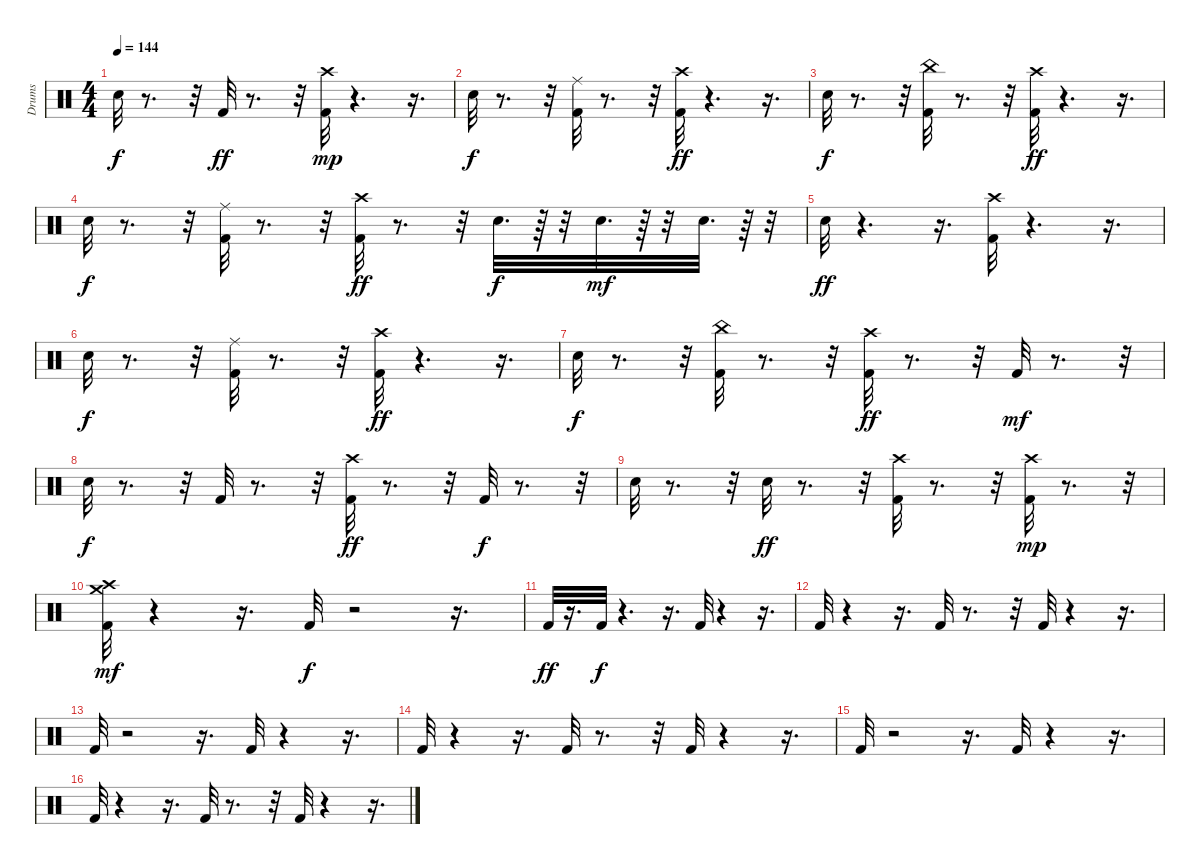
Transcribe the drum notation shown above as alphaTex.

\track ("Drums" "Drums") {instrument percussion}
\staff {score}
\articulation defaults
\ts (4 4)
\tempo 144
\clef neutral
\ks c "Snare (hit) 2".32{dy f}
r.8{d} r.32 "Kick (hit) 2".32{dy ff} r.8{d} r.32 ("Crash high (hit)" "Kick (hit) 2").32{dy mp} r.4{d} r.16{d} |
"Snare (hit) 2".32{dy f} r.8{d} r.32 ("Ride (middle)" "Kick (hit) 2").32 r.8{d} r.32 ("Crash high (hit)" "Kick (hit) 2").32{dy ff} r.4{d} r.16{d} |
"Snare (hit) 2".32{dy f} r.8{d} r.32 ("China (hit)" "Kick (hit) 2").32 r.8{d} r.32 ("Crash high (hit)" "Kick (hit) 2").32{dy ff} r.4{d} r.16{d} |
"Snare (hit) 2".32{dy f} r.8{d} r.32 ("Ride (middle)" "Kick (hit) 2").32 r.8{d} r.32 ("Crash high (hit)" "Kick (hit) 2").32{dy ff} r.8{d} r.32 "Snare (hit) 2".32{d dy f} r.64 r.32 "Snare (hit) 2".32{d dy mf} r.64 r.32 "Snare (hit) 2".32{d} r.64 r.32 |
"Snare (hit) 2".32{dy ff} r.4{d} r.16{d} ("Crash high (hit)" "Kick (hit) 2").32 r.4{d} r.16{d} |
"Snare (hit) 2".32{dy f} r.8{d} r.32 ("Ride (middle)" "Kick (hit) 2").32 r.8{d} r.32 ("Crash high (hit)" "Kick (hit) 2").32{dy ff} r.4{d} r.16{d} |
"Snare (hit) 2".32{dy f} r.8{d} r.32 ("China (hit)" "Kick (hit) 2").32 r.8{d} r.32 ("Crash high (hit)" "Kick (hit) 2").32{dy ff} r.8{d} r.32 "Kick (hit) 2".32{dy mf} r.8{d} r.32 |
"Snare (hit) 2".32{dy f} r.8{d} r.32 "Kick (hit) 2".32 r.8{d} r.32 ("Crash high (hit)" "Kick (hit) 2").32{dy ff} r.8{d} r.32 "Kick (hit) 2".32{dy f} r.8{d} r.32 |
"Snare (hit) 2".32 r.8{d} r.32 "Snare (hit) 2".32{dy ff} r.8{d} r.32 ("Crash high (hit)" "Kick (hit) 2").32 r.8{d} r.32 ("Crash high (hit)" "Kick (hit) 2").32{dy mp} r.8{d} r.32 |
("Crash medium (hit)" "Kick (hit) 2" "Crash high (hit)").32{dy mf} r.4 r.16{d} "Kick (hit) 2".32{dy f} r.2 r.16{d} |
"Kick (hit) 2".32{dy ff} r.16{d} "Kick (hit) 2".32{dy f} r.4{d} r.16{d} "Kick (hit) 2".32 r.4 r.16{d} |
"Kick (hit) 2".32 r.4 r.16{d} "Kick (hit) 2".32 r.8{d} r.32 "Kick (hit) 2".32 r.4 r.16{d} |
"Kick (hit) 2".32 r.2 r.16{d} "Kick (hit) 2".32 r.4 r.16{d} |
"Kick (hit) 2".32 r.4 r.16{d} "Kick (hit) 2".32 r.8{d} r.32 "Kick (hit) 2".32 r.4 r.16{d} |
"Kick (hit) 2".32 r.2 r.16{d} "Kick (hit) 2".32 r.4 r.16{d} |
"Kick (hit) 2".32 r.4 r.16{d} "Kick (hit) 2".32 r.8{d} r.32 "Kick (hit) 2".32 r.4 r.16{d}
